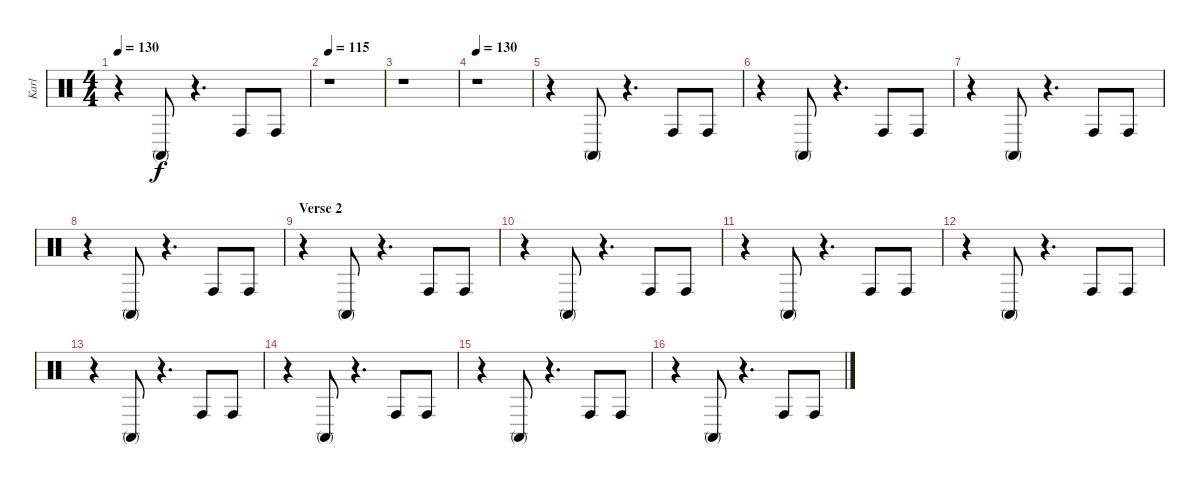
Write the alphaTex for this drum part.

\track ("Karl" "Karl") {instrument percussion}
\staff {score}
\articulation defaults
\ts (4 4)
\tempo 130
\clef neutral
\ks c
r.4{dy f} "Conga high (mute)".8 r.4{d} "Conga high (hit)".8 "Conga high (hit)".8 |
\tempo 115
r.1 |
r.1 |
\tempo 130
r.1 |
r.4 "Conga high (mute)".8 r.4{d} "Conga high (hit)".8 "Conga high (hit)".8 |
r.4 "Conga high (mute)".8 r.4{d} "Conga high (hit)".8 "Conga high (hit)".8 |
r.4 "Conga high (mute)".8 r.4{d} "Conga high (hit)".8 "Conga high (hit)".8 |
r.4 "Conga high (mute)".8 r.4{d} "Conga high (hit)".8 "Conga high (hit)".8 |
\section ("" "Verse 2")
r.4 "Conga high (mute)".8 r.4{d} "Conga high (hit)".8 "Conga high (hit)".8 |
r.4 "Conga high (mute)".8 r.4{d} "Conga high (hit)".8 "Conga high (hit)".8 |
r.4 "Conga high (mute)".8 r.4{d} "Conga high (hit)".8 "Conga high (hit)".8 |
r.4 "Conga high (mute)".8 r.4{d} "Conga high (hit)".8 "Conga high (hit)".8 |
r.4 "Conga high (mute)".8 r.4{d} "Conga high (hit)".8 "Conga high (hit)".8 |
r.4 "Conga high (mute)".8 r.4{d} "Conga high (hit)".8 "Conga high (hit)".8 |
r.4 "Conga high (mute)".8 r.4{d} "Conga high (hit)".8 "Conga high (hit)".8 |
r.4 "Conga high (mute)".8 r.4{d} "Conga high (hit)".8 "Conga high (hit)".8
